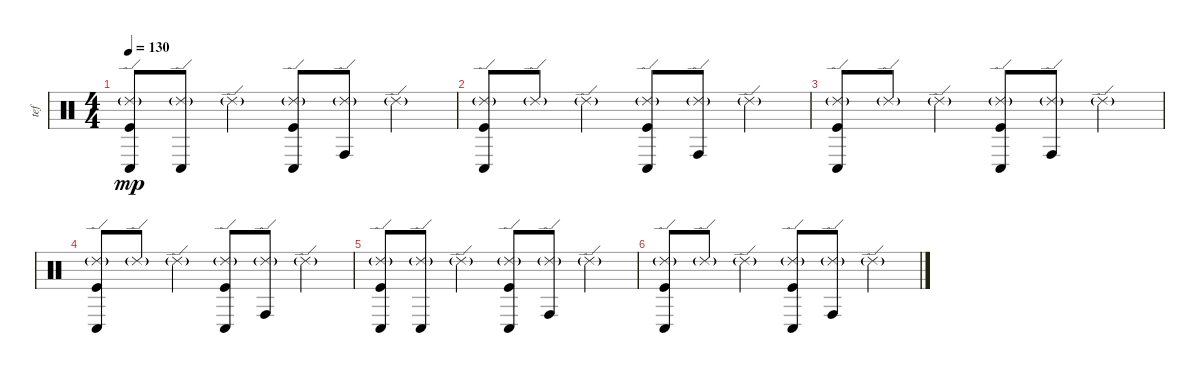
\track ("tef" "tef") {instrument percussion}
\staff {score}
\articulation defaults
\ts (4 4)
\tempo 130
\clef neutral
\ks c
("Ride (edge) 2"{g} "Kick (hit)" "Conga low (hit)").8{dy mp} ("Ride (edge) 2"{g} "Conga low (hit)").8 "Ride (edge) 2"{g}.4 ("Ride (edge) 2"{g} "Kick (hit)" "Conga low (hit)").8 ("Ride (edge) 2"{g} "Conga high (hit)").8 "Ride (edge) 2"{g}.4 |
("Ride (edge) 2"{g} "Kick (hit)" "Conga low (hit)").8 "Ride (edge) 2"{g}.8 "Ride (edge) 2"{g}.4 ("Ride (edge) 2"{g} "Kick (hit)" "Conga low (hit)").8 ("Ride (edge) 2"{g} "Conga high (hit)").8 "Ride (edge) 2"{g}.4 |
("Ride (edge) 2"{g} "Kick (hit)" "Conga low (hit)").8 "Ride (edge) 2"{g}.8 "Ride (edge) 2"{g}.4 ("Ride (edge) 2"{g} "Kick (hit)" "Conga low (hit)").8 ("Ride (edge) 2"{g} "Conga high (hit)").8 "Ride (edge) 2"{g}.4 |
("Ride (edge) 2"{g} "Kick (hit)" "Conga low (hit)").8 "Ride (edge) 2"{g}.8 "Ride (edge) 2"{g}.4 ("Ride (edge) 2"{g} "Kick (hit)" "Conga low (hit)").8 ("Ride (edge) 2"{g} "Conga high (hit)").8 "Ride (edge) 2"{g}.4 |
("Ride (edge) 2"{g} "Kick (hit)" "Conga low (hit)").8 ("Ride (edge) 2"{g} "Conga low (hit)").8 "Ride (edge) 2"{g}.4 ("Ride (edge) 2"{g} "Kick (hit)" "Conga low (hit)").8 ("Ride (edge) 2"{g} "Conga high (hit)").8 "Ride (edge) 2"{g}.4 |
("Ride (edge) 2"{g} "Kick (hit)" "Conga low (hit)").8 "Ride (edge) 2"{g}.8 "Ride (edge) 2"{g}.4 ("Ride (edge) 2"{g} "Kick (hit)" "Conga low (hit)").8 ("Ride (edge) 2"{g} "Conga high (hit)").8 "Ride (edge) 2"{g}.4
